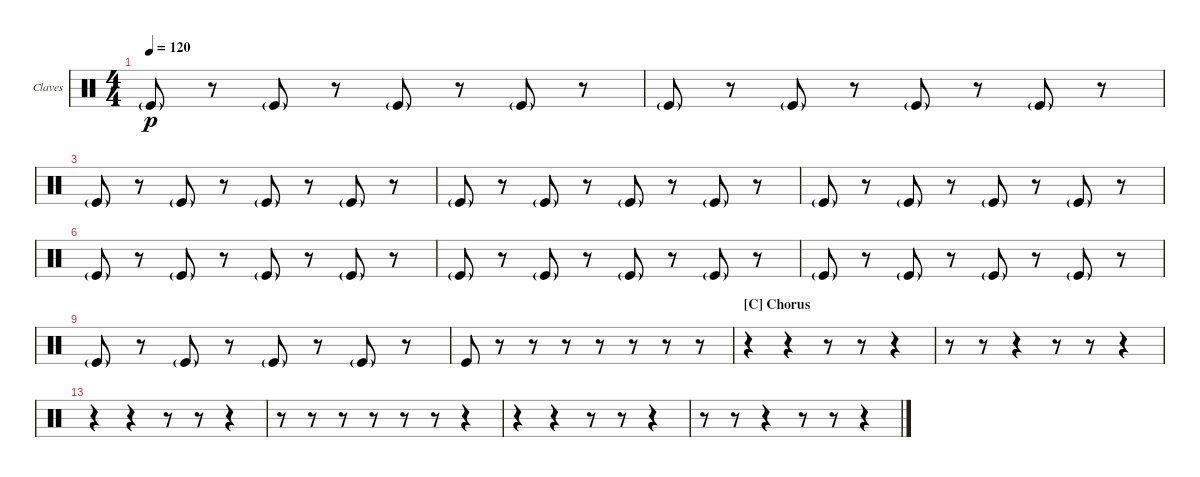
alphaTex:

\bracketExtendMode nobrackets
\firstSystemTrackNameOrientation horizontal
\otherSystemsTrackNameOrientation horizontal
\defaultBarNumberDisplay FirstOfSystem
\track ("Claves" "Claves") {instrument percussion}
\staff {score}
\articulation defaults
\ts (4 4)
\tempo 120
\clef neutral
\scale
0.240741
\ks c "Kick (hit)"{g}.8{dy p}
r.8 "Kick (hit)"{g}.8 r.8 "Kick (hit)"{g}.8 r.8 "Kick (hit)"{g}.8 r.8 |
\scale
0.240741 "Kick (hit)"{g}.8 r.8 "Kick (hit)"{g}.8 r.8 "Kick (hit)"{g}.8 r.8 "Kick (hit)"{g}.8 r.8 |
\scale
0.264151 "Kick (hit)"{g}.8 r.8 "Kick (hit)"{g}.8 r.8 "Kick (hit)"{g}.8 r.8 "Kick (hit)"{g}.8 r.8 |
\scale
0.245283 "Kick (hit)"{g}.8 r.8 "Kick (hit)"{g}.8 r.8 "Kick (hit)"{g}.8 r.8 "Kick (hit)"{g}.8 r.8 |
"Kick (hit)"{g}.8 r.8 "Kick (hit)"{g}.8 r.8 "Kick (hit)"{g}.8 r.8 "Kick (hit)"{g}.8 r.8 |
"Kick (hit)"{g}.8 r.8 "Kick (hit)"{g}.8 r.8 "Kick (hit)"{g}.8 r.8 "Kick (hit)"{g}.8 r.8 |
"Kick (hit)"{g}.8 r.8 "Kick (hit)"{g}.8 r.8 "Kick (hit)"{g}.8 r.8 "Kick (hit)"{g}.8 r.8 |
"Kick (hit)"{g}.8 r.8 "Kick (hit)"{g}.8 r.8 "Kick (hit)"{g}.8 r.8 "Kick (hit)"{g}.8 r.8 |
"Kick (hit)"{g}.8 r.8 "Kick (hit)"{g}.8 r.8 "Kick (hit)"{g}.8 r.8 "Kick (hit)"{g}.8 r.8 |
"Kick (hit)".8 r.8 r.8 r.8 r.8 r.8 r.8 r.8 |
\section ("C" "Chorus")
r.4 r.4 r.8 r.8 r.4 |
r.8 r.8 r.4 r.8 r.8 r.4 |
r.4 r.4 r.8 r.8 r.4 |
r.8 r.8 r.8 r.8 r.8 r.8 r.4 |
r.4 r.4 r.8 r.8 r.4 |
r.8 r.8 r.4 r.8 r.8 r.4
